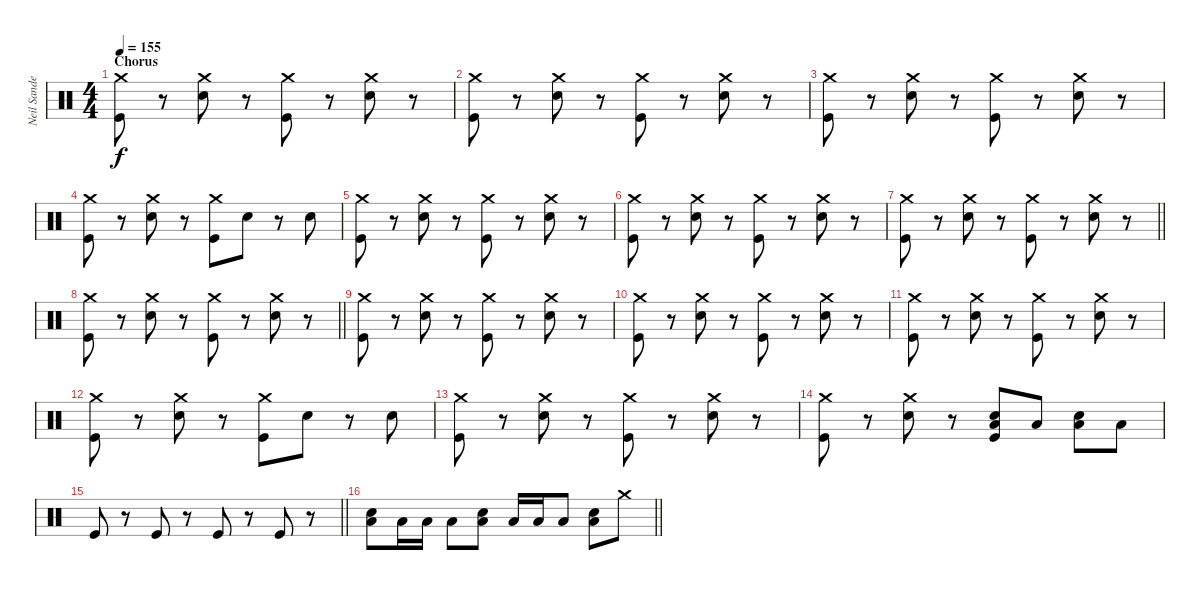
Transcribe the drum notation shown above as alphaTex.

\track ("Neil Sanderson" "Neil Sande") {instrument percussion}
\staff {score}
\articulation defaults
\ts (4 4)
\section ("" "Chorus")
\tempo 155
\clef neutral
\ks c
("Kick (hit)" "Crash medium (hit)").8{dy f} r.8 ("Electric Snare (hit)" "Crash medium (hit)").8 r.8 ("Kick (hit)" "Crash medium (hit)").8 r.8 ("Electric Snare (hit)" "Crash medium (hit)").8 r.8 |
("Kick (hit)" "Crash medium (hit)").8 r.8 ("Electric Snare (hit)" "Crash medium (hit)").8 r.8 ("Kick (hit)" "Crash medium (hit)").8 r.8 ("Electric Snare (hit)" "Crash medium (hit)").8 r.8 |
("Kick (hit)" "Crash medium (hit)").8 r.8 ("Electric Snare (hit)" "Crash medium (hit)").8 r.8 ("Kick (hit)" "Crash medium (hit)").8 r.8 ("Electric Snare (hit)" "Crash medium (hit)").8 r.8 |
("Kick (hit)" "Crash medium (hit)").8 r.8 ("Electric Snare (hit)" "Crash medium (hit)").8 r.8 ("Kick (hit)" "Crash medium (hit)").8 "Electric Snare (hit)".8 r.8 "Electric Snare (hit)".8 |
("Kick (hit)" "Crash medium (hit)").8 r.8 ("Electric Snare (hit)" "Crash medium (hit)").8 r.8 ("Kick (hit)" "Crash medium (hit)").8 r.8 ("Electric Snare (hit)" "Crash medium (hit)").8 r.8 |
("Kick (hit)" "Crash medium (hit)").8 r.8 ("Electric Snare (hit)" "Crash medium (hit)").8 r.8 ("Kick (hit)" "Crash medium (hit)").8 r.8 ("Electric Snare (hit)" "Crash medium (hit)").8 r.8 |
\barLineRight lightlight
("Kick (hit)" "Crash medium (hit)").8 r.8 ("Electric Snare (hit)" "Crash medium (hit)").8 r.8 ("Kick (hit)" "Crash medium (hit)").8 r.8 ("Electric Snare (hit)" "Crash medium (hit)").8 r.8 |
\barLineRight lightlight
("Kick (hit)" "Crash medium (hit)").8 r.8 ("Electric Snare (hit)" "Crash medium (hit)").8 r.8 ("Kick (hit)" "Crash medium (hit)").8 r.8 ("Electric Snare (hit)" "Crash medium (hit)").8 r.8 |
\section ("" "")
("Kick (hit)" "Crash medium (hit)").8 r.8 ("Electric Snare (hit)" "Crash medium (hit)").8 r.8 ("Kick (hit)" "Crash medium (hit)").8 r.8 ("Electric Snare (hit)" "Crash medium (hit)").8 r.8 |
("Kick (hit)" "Crash medium (hit)").8 r.8 ("Electric Snare (hit)" "Crash medium (hit)").8 r.8 ("Kick (hit)" "Crash medium (hit)").8 r.8 ("Electric Snare (hit)" "Crash medium (hit)").8 r.8 |
("Kick (hit)" "Crash medium (hit)").8 r.8 ("Electric Snare (hit)" "Crash medium (hit)").8 r.8 ("Kick (hit)" "Crash medium (hit)").8 r.8 ("Electric Snare (hit)" "Crash medium (hit)").8 r.8 |
("Kick (hit)" "Crash medium (hit)").8 r.8 ("Electric Snare (hit)" "Crash medium (hit)").8 r.8 ("Kick (hit)" "Crash medium (hit)").8 "Electric Snare (hit)".8 r.8 "Electric Snare (hit)".8 |
("Kick (hit)" "Crash medium (hit)").8 r.8 ("Electric Snare (hit)" "Crash medium (hit)").8 r.8 ("Kick (hit)" "Crash medium (hit)").8 r.8 ("Electric Snare (hit)" "Crash medium (hit)").8 r.8 |
("Kick (hit)" "Crash medium (hit)").8 r.8 ("Electric Snare (hit)" "Crash medium (hit)").8 r.8 ("Kick (hit)" "Electric Snare (hit)" "Low Tom (hit)").8 "Low Tom (hit)".8 ("Electric Snare (hit)" "Low Tom (hit)").8 "Low Tom (hit)".8 |
\barLineRight lightlight "Kick (hit)".8
r.8 "Kick (hit)".8 r.8 "Kick (hit)".8 r.8 "Kick (hit)".8 r.8 |
\barLineRight lightlight
("Low Tom (hit)" "Electric Snare (hit)").8 "Low Tom (hit)".16 "Low Tom (hit)".16 "Low Tom (hit)".8 ("Low Tom (hit)" "Electric Snare (hit)").8 "Low Tom (hit)".16 "Low Tom (hit)".16 "Low Tom (hit)".8 ("Low Tom (hit)" "Electric Snare (hit)").8 "Crash medium (hit)".8
